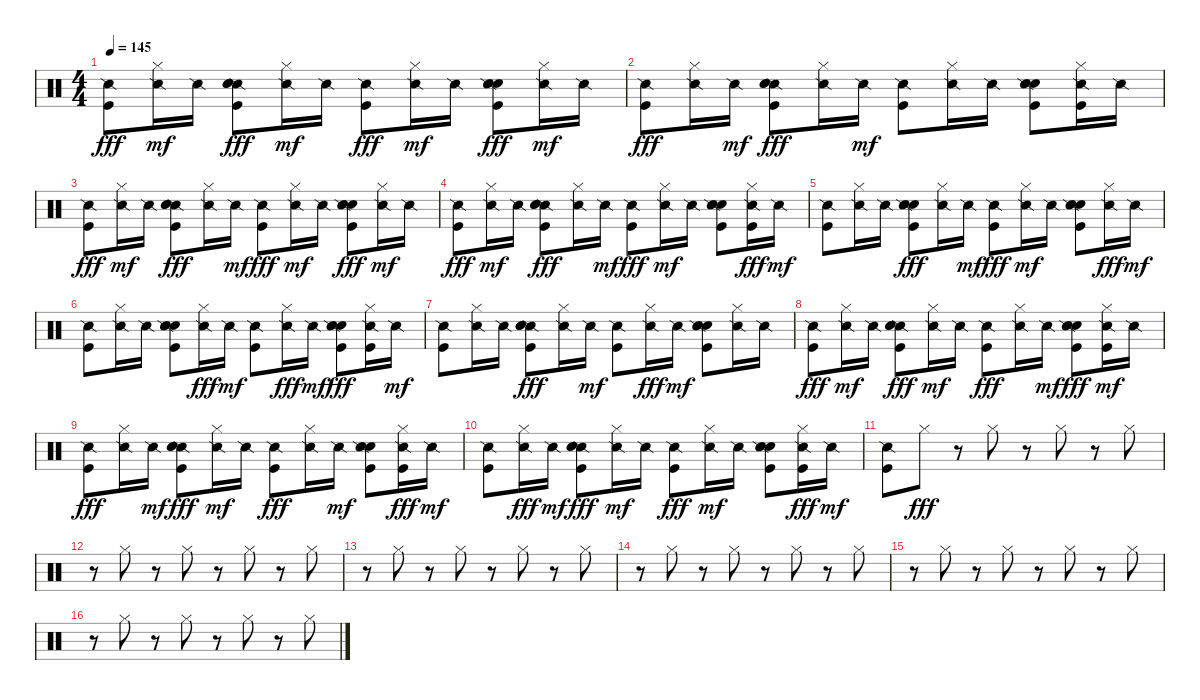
\track "" {instrument percussion}
\staff {score}
\articulation defaults
\ts (4 4)
\tempo 145
\clef neutral
\ks c
("Snare (side stick) 2" "Kick (hit)").8{dy fff} ("Hi-Hat (closed)" "Snare (side stick) 2").16{dy mf} "Snare (side stick) 2".16 ("Kick (hit)" "Snare (side stick) 2" "Hand Clap (hit)" "Electric Snare (hit)").8{dy fff} ("Hi-Hat (closed)" "Snare (side stick) 2").16{dy mf} "Snare (side stick) 2".16 ("Snare (side stick) 2" "Kick (hit)").8{dy fff} ("Hi-Hat (closed)" "Snare (side stick) 2").16{dy mf} "Snare (side stick) 2".16 ("Electric Snare (hit)" "Snare (side stick) 2" "Kick (hit)" "Hand Clap (hit)").8{dy fff} ("Hi-Hat (closed)" "Snare (side stick) 2").16{dy mf} "Snare (side stick) 2".16 |
("Snare (side stick) 2" "Kick (hit)").8{dy fff} ("Snare (side stick) 2" "Hi-Hat (closed)").16 "Snare (side stick) 2".16{dy mf} ("Snare (side stick) 2" "Hand Clap (hit)" "Electric Snare (hit)" "Kick (hit)").8{dy fff} ("Snare (side stick) 2" "Hi-Hat (closed)").16 "Snare (side stick) 2".16{dy mf} ("Kick (hit)" "Snare (side stick) 2").8 ("Hi-Hat (closed)" "Snare (side stick) 2").16 "Snare (side stick) 2".16 ("Hand Clap (hit)" "Electric Snare (hit)" "Kick (hit)" "Snare (side stick) 2").8 ("Kick (hit)" "Hi-Hat (closed)" "Snare (side stick) 2").16 "Snare (side stick) 2".16 |
("Snare (side stick) 2" "Kick (hit)").8{dy fff} ("Hi-Hat (closed)" "Snare (side stick) 2").16{dy mf} "Snare (side stick) 2".16 ("Snare (side stick) 2" "Kick (hit)" "Electric Snare (hit)" "Hand Clap (hit)").8{dy fff} ("Snare (side stick) 2" "Hi-Hat (closed)").16 "Snare (side stick) 2".16{dy mf} ("Snare (side stick) 2" "Kick (hit)").8{dy fff} ("Hi-Hat (closed)" "Snare (side stick) 2").16{dy mf} "Snare (side stick) 2".16 ("Hand Clap (hit)" "Snare (side stick) 2" "Kick (hit)" "Electric Snare (hit)").8{dy fff} ("Hi-Hat (closed)" "Snare (side stick) 2").16{dy mf} "Snare (side stick) 2".16 |
("Snare (side stick) 2" "Kick (hit)").8{dy fff} ("Hi-Hat (closed)" "Snare (side stick) 2").16{dy mf} "Snare (side stick) 2".16 ("Snare (side stick) 2" "Hand Clap (hit)" "Electric Snare (hit)" "Kick (hit)").8{dy fff} ("Snare (side stick) 2" "Hi-Hat (closed)").16 "Snare (side stick) 2".16{dy mf} ("Snare (side stick) 2" "Kick (hit)").8{dy fff} ("Hi-Hat (closed)" "Snare (side stick) 2").16{dy mf} "Snare (side stick) 2".16 ("Kick (hit)" "Hand Clap (hit)" "Electric Snare (hit)" "Snare (side stick) 2").8 ("Snare (side stick) 2" "Hi-Hat (closed)" "Kick (hit)").16{dy fff} "Snare (side stick) 2".16{dy mf} |
("Kick (hit)" "Snare (side stick) 2").8 ("Hi-Hat (closed)" "Snare (side stick) 2").16 "Snare (side stick) 2".16 ("Electric Snare (hit)" "Snare (side stick) 2" "Hand Clap (hit)" "Kick (hit)").8{dy fff} ("Snare (side stick) 2" "Hi-Hat (closed)").16 "Snare (side stick) 2".16{dy mf} ("Snare (side stick) 2" "Kick (hit)").8{dy fff} ("Hi-Hat (closed)" "Snare (side stick) 2").16{dy mf} "Snare (side stick) 2".16 ("Kick (hit)" "Electric Snare (hit)" "Hand Clap (hit)" "Snare (side stick) 2").8 ("Snare (side stick) 2" "Hi-Hat (closed)").16{dy fff} "Snare (side stick) 2".16{dy mf} |
("Kick (hit)" "Snare (side stick) 2").8 ("Hi-Hat (closed)" "Snare (side stick) 2").16 "Snare (side stick) 2".16 ("Kick (hit)" "Hand Clap (hit)" "Electric Snare (hit)" "Snare (side stick) 2").8 ("Snare (side stick) 2" "Hi-Hat (closed)").16{dy fff} "Snare (side stick) 2".16{dy mf} ("Kick (hit)" "Snare (side stick) 2").8 ("Snare (side stick) 2" "Hi-Hat (closed)").16{dy fff} "Snare (side stick) 2".16{dy mf} ("Hand Clap (hit)" "Snare (side stick) 2" "Electric Snare (hit)" "Kick (hit)").8{dy fff} ("Kick (hit)" "Snare (side stick) 2" "Hi-Hat (closed)").16 "Snare (side stick) 2".16{dy mf} |
("Kick (hit)" "Snare (side stick) 2").8 ("Hi-Hat (closed)" "Snare (side stick) 2").16 "Snare (side stick) 2".16 ("Snare (side stick) 2" "Hand Clap (hit)" "Electric Snare (hit)" "Kick (hit)").8{dy fff} ("Snare (side stick) 2" "Hi-Hat (closed)").16 "Snare (side stick) 2".16{dy mf} ("Kick (hit)" "Snare (side stick) 2").8 ("Snare (side stick) 2" "Hi-Hat (closed)").16{dy fff} "Snare (side stick) 2".16{dy mf} ("Hand Clap (hit)" "Kick (hit)" "Snare (side stick) 2" "Electric Snare (hit)").8 ("Hi-Hat (closed)" "Snare (side stick) 2").16 "Snare (side stick) 2".16 |
("Snare (side stick) 2" "Kick (hit)").8{dy fff} ("Hi-Hat (closed)" "Snare (side stick) 2").16{dy mf} "Snare (side stick) 2".16 ("Snare (side stick) 2" "Kick (hit)" "Hand Clap (hit)" "Electric Snare (hit)").8{dy fff} ("Hi-Hat (closed)" "Snare (side stick) 2").16{dy mf} "Snare (side stick) 2".16 ("Snare (side stick) 2" "Kick (hit)").8{dy fff} ("Snare (side stick) 2" "Hi-Hat (closed)").16 "Snare (side stick) 2".16{dy mf} ("Hand Clap (hit)" "Snare (side stick) 2" "Kick (hit)" "Electric Snare (hit)").8{dy fff} ("Kick (hit)" "Hi-Hat (closed)" "Snare (side stick) 2").16{dy mf} "Snare (side stick) 2".16 |
("Snare (side stick) 2" "Kick (hit)").8{dy fff} ("Snare (side stick) 2" "Hi-Hat (closed)").16 "Snare (side stick) 2".16{dy mf} ("Kick (hit)" "Snare (side stick) 2" "Electric Snare (hit)" "Hand Clap (hit)").8{dy fff} ("Hi-Hat (closed)" "Snare (side stick) 2").16{dy mf} "Snare (side stick) 2".16 ("Snare (side stick) 2" "Kick (hit)").8{dy fff} ("Snare (side stick) 2" "Hi-Hat (closed)").16 "Snare (side stick) 2".16{dy mf} ("Electric Snare (hit)" "Kick (hit)" "Hand Clap (hit)" "Snare (side stick) 2").8 ("Hi-Hat (closed)" "Snare (side stick) 2" "Kick (hit)").16{dy fff} "Snare (side stick) 2".16{dy mf} |
("Kick (hit)" "Snare (side stick) 2").8 ("Snare (side stick) 2" "Hi-Hat (closed)").16{dy fff} "Snare (side stick) 2".16{dy mf} ("Snare (side stick) 2" "Kick (hit)" "Electric Snare (hit)" "Hand Clap (hit)").8{dy fff} ("Hi-Hat (closed)" "Snare (side stick) 2").16{dy mf} "Snare (side stick) 2".16 ("Snare (side stick) 2" "Kick (hit)").8{dy fff} ("Hi-Hat (closed)" "Snare (side stick) 2").16{dy mf} "Snare (side stick) 2".16 ("Kick (hit)" "Electric Snare (hit)" "Hand Clap (hit)" "Snare (side stick) 2").8 ("Snare (side stick) 2" "Hi-Hat (closed)" "Kick (hit)").16{dy fff} "Snare (side stick) 2".16{dy mf} |
("Kick (hit)" "Snare (side stick) 2").8 "Hi-Hat (closed)".8{dy fff} r.8 "Hi-Hat (closed)".8 r.8 "Hi-Hat (closed)".8 r.8 "Hi-Hat (closed)".8 |
r.8 "Hi-Hat (closed)".8 r.8 "Hi-Hat (closed)".8 r.8 "Hi-Hat (closed)".8 r.8 "Hi-Hat (closed)".8 |
r.8 "Hi-Hat (closed)".8 r.8 "Hi-Hat (closed)".8 r.8 "Hi-Hat (closed)".8 r.8 "Hi-Hat (closed)".8 |
r.8 "Hi-Hat (closed)".8 r.8 "Hi-Hat (closed)".8 r.8 "Hi-Hat (closed)".8 r.8 "Hi-Hat (closed)".8 |
r.8 "Hi-Hat (closed)".8 r.8 "Hi-Hat (closed)".8 r.8 "Hi-Hat (closed)".8 r.8 "Hi-Hat (closed)".8 |
r.8 "Hi-Hat (closed)".8 r.8 "Hi-Hat (closed)".8 r.8 "Hi-Hat (closed)".8 r.8 "Hi-Hat (closed)".8
